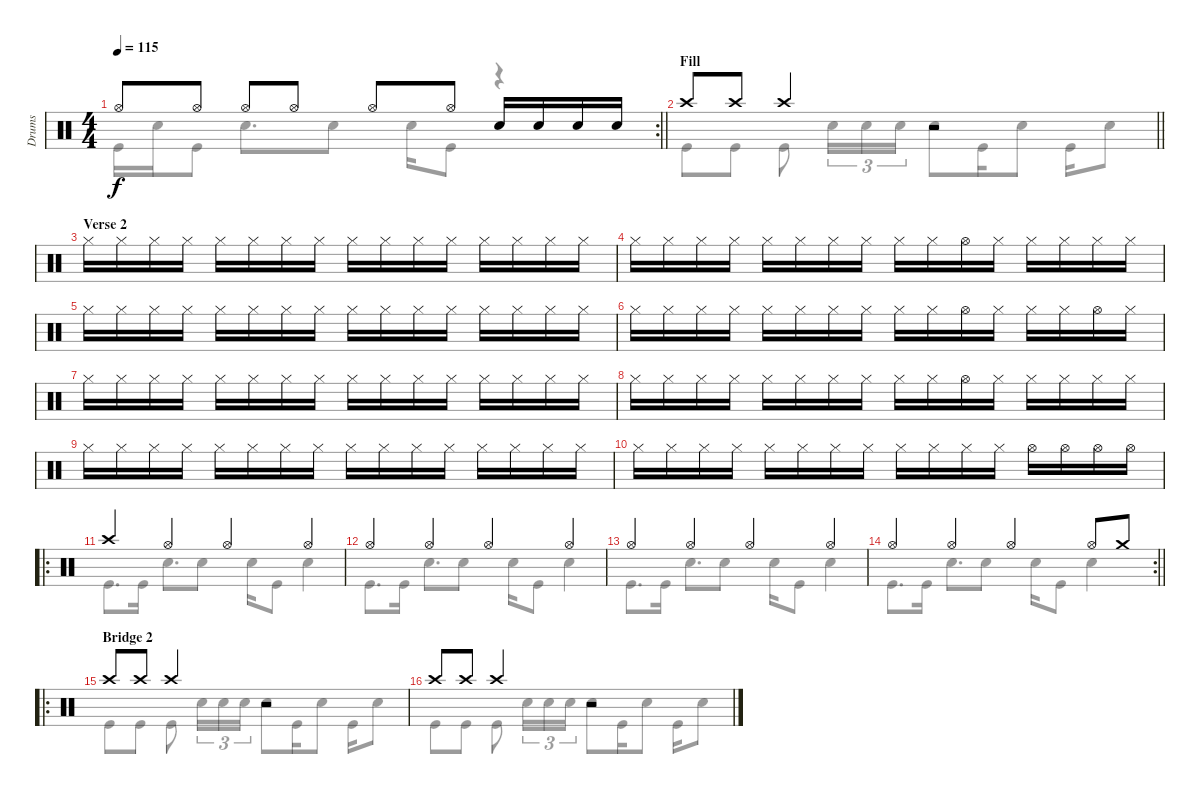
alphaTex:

\track ("Drums" "Drums") {instrument percussion}
\staff {score}
\articulation defaults
\voice
\rc 2
\ts (4 4)
\tempo 115
\clef neutral
\barLineRight lightlight
\ks c "Hi-Hat (open)".8{dy f} "Hi-Hat (open)".8 "Hi-Hat (open)".8 "Hi-Hat (open)".8 "Hi-Hat (open)".8 "Hi-Hat (open)".8 "Electric Snare (hit)".16 "Electric Snare (hit)".16 "Electric Snare (hit)".16 "Electric Snare (hit)".16
|
\section ("" "Fill")
\barLineRight lightlight "Crash high (hit)".8 "Crash high (hit)".8 "Crash high (hit)".4
r.2 |
\section ("" "Verse 2")
"Hi-Hat (closed)".16 "Hi-Hat (closed)".16 "Hi-Hat (closed)".16 "Hi-Hat (closed)".16 "Hi-Hat (closed)".16 "Hi-Hat (closed)".16 "Hi-Hat (closed)".16 "Hi-Hat (closed)".16 "Hi-Hat (closed)".16 "Hi-Hat (closed)".16 "Hi-Hat (closed)".16 "Hi-Hat (closed)".16 "Hi-Hat (closed)".16 "Hi-Hat (closed)".16 "Hi-Hat (closed)".16 "Hi-Hat (closed)".16 |
"Hi-Hat (closed)".16 "Hi-Hat (closed)".16 "Hi-Hat (closed)".16 "Hi-Hat (closed)".16 "Hi-Hat (closed)".16 "Hi-Hat (closed)".16 "Hi-Hat (closed)".16 "Hi-Hat (closed)".16 "Hi-Hat (closed)".16 "Hi-Hat (closed)".16 "Hi-Hat (open)".16 "Hi-Hat (closed)".16 "Hi-Hat (closed)".16 "Hi-Hat (closed)".16 "Hi-Hat (closed)".16 "Hi-Hat (closed)".16 |
"Hi-Hat (closed)".16 "Hi-Hat (closed)".16 "Hi-Hat (closed)".16 "Hi-Hat (closed)".16 "Hi-Hat (closed)".16 "Hi-Hat (closed)".16 "Hi-Hat (closed)".16 "Hi-Hat (closed)".16 "Hi-Hat (closed)".16 "Hi-Hat (closed)".16 "Hi-Hat (closed)".16 "Hi-Hat (closed)".16 "Hi-Hat (closed)".16 "Hi-Hat (closed)".16 "Hi-Hat (closed)".16 "Hi-Hat (closed)".16 |
"Hi-Hat (closed)".16 "Hi-Hat (closed)".16 "Hi-Hat (closed)".16 "Hi-Hat (closed)".16 "Hi-Hat (closed)".16 "Hi-Hat (closed)".16 "Hi-Hat (closed)".16 "Hi-Hat (closed)".16 "Hi-Hat (closed)".16 "Hi-Hat (closed)".16 "Hi-Hat (open)".16 "Hi-Hat (closed)".16 "Hi-Hat (closed)".16 "Hi-Hat (closed)".16 "Hi-Hat (open)".16 "Hi-Hat (closed)".16 |
"Hi-Hat (closed)".16 "Hi-Hat (closed)".16 "Hi-Hat (closed)".16 "Hi-Hat (closed)".16 "Hi-Hat (closed)".16 "Hi-Hat (closed)".16 "Hi-Hat (closed)".16 "Hi-Hat (closed)".16 "Hi-Hat (closed)".16 "Hi-Hat (closed)".16 "Hi-Hat (closed)".16 "Hi-Hat (closed)".16 "Hi-Hat (closed)".16 "Hi-Hat (closed)".16 "Hi-Hat (closed)".16 "Hi-Hat (closed)".16 |
"Hi-Hat (closed)".16 "Hi-Hat (closed)".16 "Hi-Hat (closed)".16 "Hi-Hat (closed)".16 "Hi-Hat (closed)".16 "Hi-Hat (closed)".16 "Hi-Hat (closed)".16 "Hi-Hat (closed)".16 "Hi-Hat (closed)".16 "Hi-Hat (closed)".16 "Hi-Hat (open)".16 "Hi-Hat (closed)".16 "Hi-Hat (closed)".16 "Hi-Hat (closed)".16 "Hi-Hat (closed)".16 "Hi-Hat (closed)".16 |
"Hi-Hat (closed)".16 "Hi-Hat (closed)".16 "Hi-Hat (closed)".16 "Hi-Hat (closed)".16 "Hi-Hat (closed)".16 "Hi-Hat (closed)".16 "Hi-Hat (closed)".16 "Hi-Hat (closed)".16 "Hi-Hat (closed)".16 "Hi-Hat (closed)".16 "Hi-Hat (closed)".16 "Hi-Hat (closed)".16 "Hi-Hat (closed)".16 "Hi-Hat (closed)".16 "Hi-Hat (closed)".16 "Hi-Hat (closed)".16 |
"Hi-Hat (closed)".16 "Hi-Hat (closed)".16 "Hi-Hat (closed)".16 "Hi-Hat (closed)".16 "Hi-Hat (closed)".16 "Hi-Hat (closed)".16 "Hi-Hat (closed)".16 "Hi-Hat (closed)".16 "Hi-Hat (closed)".16 "Hi-Hat (closed)".16 "Hi-Hat (closed)".16 "Hi-Hat (closed)".16 "Hi-Hat (open)".16 "Hi-Hat (open)".16 "Hi-Hat (open)".16 "Hi-Hat (open)".16 |
\ro "Crash high (hit)".4 "Hi-Hat (open)".4 "Hi-Hat (open)".4 "Hi-Hat (open)".4
|
"Hi-Hat (open)".4 "Hi-Hat (open)".4 "Hi-Hat (open)".4 "Hi-Hat (open)".4 |
"Hi-Hat (open)".4 "Hi-Hat (open)".4 "Hi-Hat (open)".4 "Hi-Hat (open)".4 |
\rc 2
\barLineRight lightlight "Hi-Hat (open)".4 "Hi-Hat (open)".4 "Hi-Hat (open)".4 "Hi-Hat (open)".8 "Crash medium (hit)".8
|
\ro
\section ("" "Bridge 2")
"Crash high (hit)".8 "Crash high (hit)".8 "Crash high (hit)".4 r.2 |
"Crash high (hit)".8 "Crash high (hit)".8 "Crash high (hit)".4 r.2
\voice
\clef neutral
\ottava regular
\simile none
\barLineRight lightlight
\ks c "Kick (hit)".16{dy f} "Electric Snare (hit)".16 "Kick (hit)".8 "Electric Snare (hit)".8{d} "Electric Snare (hit)".8 "Electric Snare (hit)".16 "Kick (hit)".8
r.4 |
\barLineRight lightlight "Kick (hit)".8 "Kick (hit)".8 "Kick (hit)".8 "Electric Snare (hit)".16{tu (3 2)} "Electric Snare (hit)".16{tu (3 2)} "Electric Snare (hit)".16{tu (3 2)} "Electric Snare (hit)".8 "Kick (hit)".16 "Electric Snare (hit)".8 "Kick (hit)".16 "Electric Snare (hit)".8
|
|
|
|
|
|
|
|
|
"Kick (hit)".8{d} "Kick (hit)".16 "Electric Snare (hit)".8{d} "Electric Snare (hit)".8 "Electric Snare (hit)".16 "Kick (hit)".8 "Electric Snare (hit)".4 |
"Kick (hit)".8{d} "Kick (hit)".16 "Electric Snare (hit)".8{d} "Electric Snare (hit)".8 "Electric Snare (hit)".16 "Kick (hit)".8 "Electric Snare (hit)".4 |
"Kick (hit)".8{d} "Kick (hit)".16 "Electric Snare (hit)".8{d} "Electric Snare (hit)".8 "Electric Snare (hit)".16 "Kick (hit)".8 "Electric Snare (hit)".4 |
\barLineRight lightlight "Kick (hit)".8{d} "Kick (hit)".16 "Electric Snare (hit)".8{d} "Electric Snare (hit)".8 "Electric Snare (hit)".16 "Kick (hit)".8 "Electric Snare (hit)".4
|
"Kick (hit)".8 "Kick (hit)".8 "Kick (hit)".8 "Electric Snare (hit)".16{tu (3 2)} "Electric Snare (hit)".16{tu (3 2)} "Electric Snare (hit)".16{tu (3 2)} "Electric Snare (hit)".8 "Kick (hit)".16 "Electric Snare (hit)".8 "Kick (hit)".16 "Electric Snare (hit)".8 |
"Kick (hit)".8 "Kick (hit)".8 "Kick (hit)".8 "Electric Snare (hit)".16{tu (3 2)} "Electric Snare (hit)".16{tu (3 2)} "Electric Snare (hit)".16{tu (3 2)} "Electric Snare (hit)".8 "Kick (hit)".16 "Electric Snare (hit)".8 "Kick (hit)".16 "Electric Snare (hit)".8
